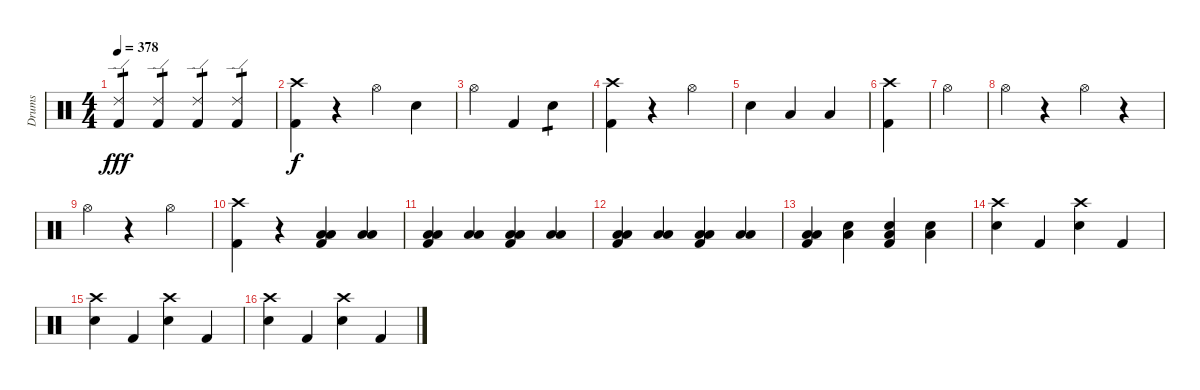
\track ("Drums" "Drums") {instrument percussion}
\staff {score}
\articulation defaults
\ts (4 4)
\tempo 378
\clef neutral
\ks c
("Ride (edge) 2" "Kick (hit) 2").4{tp 1 dy fff} ("Ride (edge) 2" "Kick (hit) 2").4{tp 1} ("Ride (edge) 2" "Kick (hit) 2").4{tp 1} ("Ride (edge) 2" "Kick (hit) 2").4{tp 1} |
("Crash high (hit)" "Kick (hit) 2").4{dy f} r.4 "Hi-Hat (open)".4 "Electric Snare (hit)".4 |
"Hi-Hat (open)".4 "Kick (hit) 2".4 "Electric Snare (hit)".4{tp 1} |
("Crash high (hit)" "Kick (hit) 2").4 r.4 "Hi-Hat (open)".4 |
"Electric Snare (hit)".4 "Low Tom (hit)".4 "Low Floor Tom (hit)".4 |
("Crash high (hit)" "Kick (hit) 2").4 |
"Hi-Hat (open)".4 |
"Hi-Hat (open)".4 r.4 "Hi-Hat (open)".4 r.4 |
"Hi-Hat (open)".4 r.4 "Hi-Hat (open)".4 |
("Crash high (hit)" "Kick (hit) 2").4 r.4 ("Low Floor Tom (hit)" "Low Tom (hit)" "Kick (hit) 2").4 ("Low Floor Tom (hit)" "Low Tom (hit)").4 |
("Low Floor Tom (hit)" "Low Tom (hit)" "Kick (hit) 2").4 ("Low Floor Tom (hit)" "Low Tom (hit)").4 ("Low Floor Tom (hit)" "Low Tom (hit)" "Kick (hit) 2").4 ("Low Floor Tom (hit)" "Low Tom (hit)").4 |
("Low Floor Tom (hit)" "Low Tom (hit)" "Kick (hit) 2").4 ("Low Floor Tom (hit)" "Low Tom (hit)").4 ("Low Floor Tom (hit)" "Low Tom (hit)" "Kick (hit) 2").4 ("Low Floor Tom (hit)" "Low Tom (hit)").4 |
("Low Floor Tom (hit)" "Low Tom (hit)" "Kick (hit) 2").4 ("Electric Snare (hit)" "Low Tom (hit)").4 ("Electric Snare (hit)" "Low Tom (hit)" "Kick (hit) 2").4 ("Electric Snare (hit)" "Low Tom (hit)").4 |
("Crash high (hit)" "Electric Snare (hit)").4 "Kick (hit) 2".4 ("Crash high (hit)" "Electric Snare (hit)").4 "Kick (hit) 2".4 |
("Crash high (hit)" "Electric Snare (hit)").4 "Kick (hit) 2".4 ("Crash high (hit)" "Electric Snare (hit)").4 "Kick (hit) 2".4 |
("Crash high (hit)" "Electric Snare (hit)").4 "Kick (hit) 2".4 ("Crash high (hit)" "Electric Snare (hit)").4 "Kick (hit) 2".4
